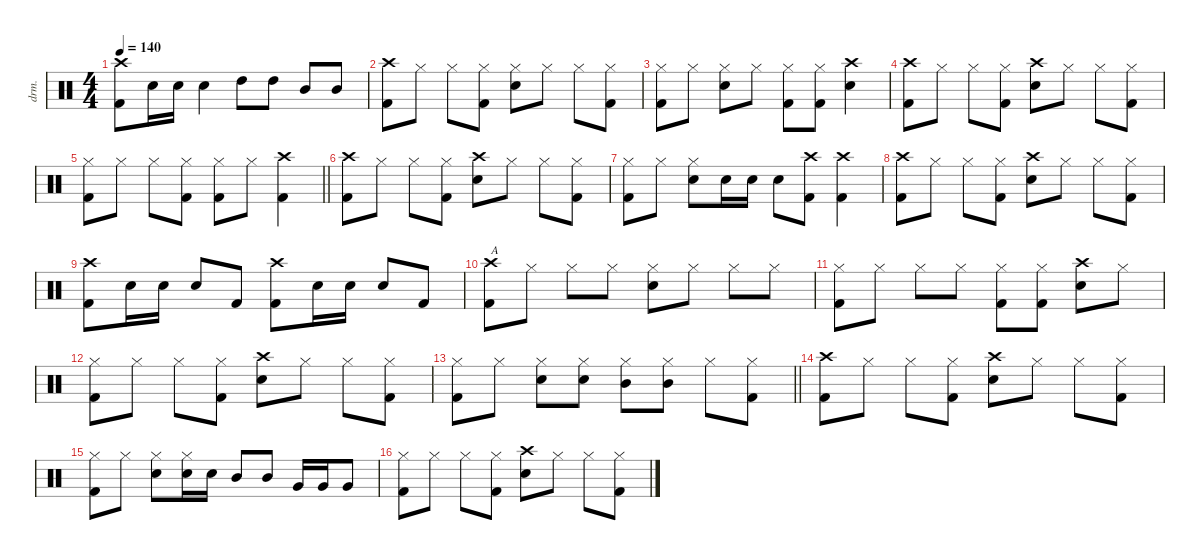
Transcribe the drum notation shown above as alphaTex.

\defaultSystemsLayout 4
\hideDynamics
\bracketExtendMode nobrackets
\otherSystemsTrackNameOrientation horizontal
\track ("Drums" "drm.") {defaultSystemsLayout 4 instrument percussion}
\staff {score}
\articulation defaults
\ts (4 4)
\tempo 140
\clef neutral
\ks aminor
("Crash high (hit)" "Kick (hit) 2").8{dy f beam Down} "Snare (hit) 2".16{beam Down} "Snare (hit) 2".16{beam Down} "Snare (hit) 2".4{beam Down} "High Tom (hit)".8{beam Down} "High Tom (hit)".8{beam Down} "Mid Tom (hit)".8{beam Up} "Mid Tom (hit)".8{beam Up} |
("Crash high (hit)" "Kick (hit) 2").8{beam Down} "Hi-Hat (closed)".8{beam Down} "Hi-Hat (closed)".8{beam Down} ("Hi-Hat (closed)" "Kick (hit) 2").8{beam Down} ("Hi-Hat (closed)" "Snare (hit) 2").8{beam Down} "Hi-Hat (closed)".8{beam Down} "Hi-Hat (closed)".8{beam Down} ("Hi-Hat (closed)" "Kick (hit) 2").8{beam Down} |
("Hi-Hat (closed)" "Kick (hit) 2").8{beam Down} "Hi-Hat (closed)".8{beam Down} ("Hi-Hat (closed)" "Snare (hit) 2").8{beam Down} "Hi-Hat (closed)".8{beam Down} ("Hi-Hat (closed)" "Kick (hit) 2").8{beam Down} ("Hi-Hat (closed)" "Kick (hit) 2").8{beam Down} ("Crash high (hit)" "Snare (hit) 2").4{beam Down} |
("Crash high (hit)" "Kick (hit) 2").8{beam Down} "Hi-Hat (closed)".8{beam Down} "Hi-Hat (closed)".8{beam Down} ("Hi-Hat (closed)" "Kick (hit) 2").8{beam Down} ("Crash high (hit)" "Snare (hit) 2").8{beam Down} "Hi-Hat (closed)".8{beam Down} "Hi-Hat (closed)".8{beam Down} ("Hi-Hat (closed)" "Kick (hit) 2").8{beam Down} |
\barLineRight lightlight
("Hi-Hat (closed)" "Kick (hit) 2").8{beam Down} "Hi-Hat (closed)".8{beam Down} "Hi-Hat (closed)".8{beam Down} ("Hi-Hat (closed)" "Kick (hit) 2").8{beam Down} ("Hi-Hat (closed)" "Kick (hit) 2").8{beam Down} "Hi-Hat (closed)".8{beam Down} ("Crash high (hit)" "Kick (hit) 2").4{beam Down} |
("Crash high (hit)" "Kick (hit) 2").8{beam Down} "Hi-Hat (closed)".8{beam Down} "Hi-Hat (closed)".8{beam Down} ("Hi-Hat (closed)" "Kick (hit) 2").8{beam Down} ("Crash high (hit)" "Snare (hit) 2").8{beam Down} "Hi-Hat (closed)".8{beam Down} "Hi-Hat (closed)".8{beam Down} ("Hi-Hat (closed)" "Kick (hit) 2").8{beam Down} |
("Hi-Hat (closed)" "Kick (hit) 2").8{beam Down} "Hi-Hat (closed)".8{beam Down} ("Hi-Hat (closed)" "Snare (hit) 2").8{beam Down} "Snare (hit) 2".16{beam Down} "Snare (hit) 2".16{beam Down} "Snare (hit) 2".8{beam Down} ("Crash high (hit)" "Kick (hit) 2").8{beam Down} ("Crash high (hit)" "Kick (hit) 2").4{beam Down} |
("Crash high (hit)" "Kick (hit) 2").8{beam Down} "Hi-Hat (closed)".8{beam Down} "Hi-Hat (closed)".8{beam Down} ("Hi-Hat (closed)" "Kick (hit) 2").8{beam Down} ("Crash high (hit)" "Snare (hit) 2").8{beam Down} "Hi-Hat (closed)".8{beam Down} "Hi-Hat (closed)".8{beam Down} ("Hi-Hat (closed)" "Kick (hit) 2").8{beam Down} |
("Crash high (hit)" "Kick (hit) 2").8{beam Down} "Snare (hit) 2".16{beam Down} "Snare (hit) 2".16{beam Down} "Snare (hit) 2".8{beam Up} "Kick (hit) 2".8{beam Up} ("Crash high (hit)" "Kick (hit) 2").8{beam Down} "Snare (hit) 2".16{beam Down} "Snare (hit) 2".16{beam Down} "Snare (hit) 2".8{beam Up} "Kick (hit) 2".8{beam Up} |
("Crash high (hit)" "Kick (hit) 2").8{txt "A" beam Down} "Hi-Hat (closed)".8{beam Down} "Hi-Hat (closed)".8{beam Down} "Hi-Hat (closed)".8{beam Down} ("Hi-Hat (closed)" "Snare (hit) 2").8{beam Down} "Hi-Hat (closed)".8{beam Down} "Hi-Hat (closed)".8{beam Down} "Hi-Hat (closed)".8{beam Down} |
("Hi-Hat (closed)" "Kick (hit) 2").8{beam Down} "Hi-Hat (closed)".8{beam Down} "Hi-Hat (closed)".8{beam Down} "Hi-Hat (closed)".8{beam Down} ("Hi-Hat (closed)" "Kick (hit) 2").8{beam Down} ("Hi-Hat (closed)" "Kick (hit) 2").8{beam Down} ("Crash high (hit)" "Snare (hit) 2").8{beam Down} "Hi-Hat (closed)".8{beam Down} |
("Hi-Hat (closed)" "Kick (hit) 2").8{beam Down} "Hi-Hat (closed)".8{beam Down} "Hi-Hat (closed)".8{beam Down} ("Hi-Hat (closed)" "Kick (hit) 2").8{beam Down} ("Crash high (hit)" "Snare (hit) 2").8{beam Down} "Hi-Hat (closed)".8{beam Down} "Hi-Hat (closed)".8{beam Down} ("Hi-Hat (closed)" "Kick (hit) 2").8{beam Down} |
\barLineRight lightlight
("Hi-Hat (closed)" "Kick (hit) 2").8{beam Down} "Hi-Hat (closed)".8{beam Down} ("Hi-Hat (closed)" "Snare (hit) 2").8{beam Down} ("Hi-Hat (closed)" "Snare (hit) 2").8{beam Down} ("Hi-Hat (closed)" "Mid Tom (hit)").8{beam Down} ("Hi-Hat (closed)" "Mid Tom (hit)").8{beam Down} "Hi-Hat (closed)".8{beam Down} ("Hi-Hat (closed)" "Kick (hit) 2").8{beam Down} |
("Crash high (hit)" "Kick (hit) 2").8{beam Down} "Hi-Hat (closed)".8{beam Down} "Hi-Hat (closed)".8{beam Down} ("Hi-Hat (closed)" "Kick (hit) 2").8{beam Down} ("Crash high (hit)" "Snare (hit) 2").8{beam Down} "Hi-Hat (closed)".8{beam Down} "Hi-Hat (closed)".8{beam Down} ("Hi-Hat (closed)" "Kick (hit) 2").8{beam Down} |
("Hi-Hat (closed)" "Kick (hit) 2").8{beam Down} "Hi-Hat (closed)".8{beam Down} ("Hi-Hat (closed)" "Snare (hit) 2").8{beam Down} ("Hi-Hat (closed)" "Snare (hit) 2").16{beam Down} "Snare (hit) 2".16{beam Down} "Mid Tom (hit)".8{beam Up} "Mid Tom (hit)".8{beam Up} "Very Low Tom (hit)".16{beam Up} "Very Low Tom (hit)".16{beam Up} "Very Low Tom (hit)".8{beam Up} |
("Hi-Hat (closed)" "Kick (hit) 2").8{beam Down} "Hi-Hat (closed)".8{beam Down} "Hi-Hat (closed)".8{beam Down} ("Hi-Hat (closed)" "Kick (hit) 2").8{beam Down} ("Crash high (hit)" "Snare (hit) 2").8{beam Down} "Hi-Hat (closed)".8{beam Down} "Hi-Hat (closed)".8{beam Down} ("Hi-Hat (closed)" "Kick (hit) 2").8{beam Down}
